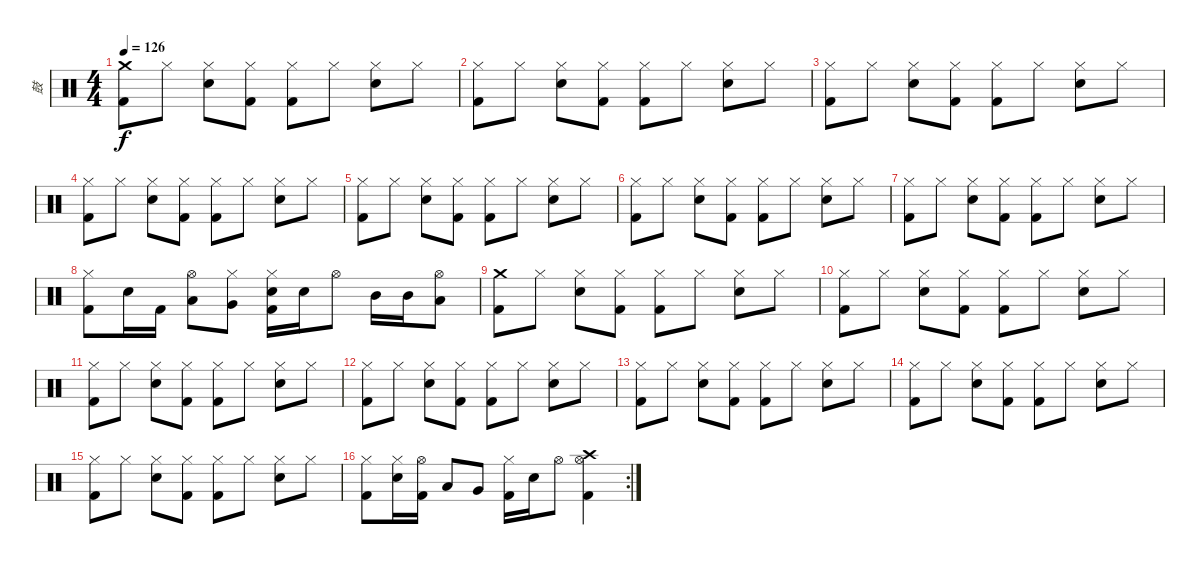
\track ("鼓" "鼓") {instrument percussion}
\staff {score}
\articulation defaults
\ts (4 4)
\tempo 126
\clef neutral
\ks c
("Crash medium (hit)" "Kick (hit) 2").8{dy f} "Hi-Hat (closed)".8 ("Hi-Hat (closed)" "Electric Snare (hit)").8 ("Hi-Hat (closed)" "Kick (hit) 2").8 ("Hi-Hat (closed)" "Kick (hit) 2").8 "Hi-Hat (closed)".8 ("Hi-Hat (closed)" "Electric Snare (hit)").8 "Hi-Hat (closed)".8 |
("Hi-Hat (closed)" "Kick (hit) 2").8 "Hi-Hat (closed)".8 ("Hi-Hat (closed)" "Electric Snare (hit)").8 ("Hi-Hat (closed)" "Kick (hit) 2").8 ("Hi-Hat (closed)" "Kick (hit) 2").8 "Hi-Hat (closed)".8 ("Hi-Hat (closed)" "Electric Snare (hit)").8 "Hi-Hat (closed)".8 |
("Hi-Hat (closed)" "Kick (hit) 2").8 "Hi-Hat (closed)".8 ("Hi-Hat (closed)" "Electric Snare (hit)").8 ("Hi-Hat (closed)" "Kick (hit) 2").8 ("Hi-Hat (closed)" "Kick (hit) 2").8 "Hi-Hat (closed)".8 ("Hi-Hat (closed)" "Electric Snare (hit)").8 "Hi-Hat (closed)".8 |
("Hi-Hat (closed)" "Kick (hit) 2").8 "Hi-Hat (closed)".8 ("Hi-Hat (closed)" "Electric Snare (hit)").8 ("Hi-Hat (closed)" "Kick (hit) 2").8 ("Hi-Hat (closed)" "Kick (hit) 2").8 "Hi-Hat (closed)".8 ("Hi-Hat (closed)" "Electric Snare (hit)").8 "Hi-Hat (closed)".8 |
("Hi-Hat (closed)" "Kick (hit) 2").8 "Hi-Hat (closed)".8 ("Hi-Hat (closed)" "Electric Snare (hit)").8 ("Hi-Hat (closed)" "Kick (hit) 2").8 ("Hi-Hat (closed)" "Kick (hit) 2").8 "Hi-Hat (closed)".8 ("Hi-Hat (closed)" "Electric Snare (hit)").8 "Hi-Hat (closed)".8 |
("Hi-Hat (closed)" "Kick (hit) 2").8 "Hi-Hat (closed)".8 ("Hi-Hat (closed)" "Electric Snare (hit)").8 ("Hi-Hat (closed)" "Kick (hit) 2").8 ("Hi-Hat (closed)" "Kick (hit) 2").8 "Hi-Hat (closed)".8 ("Hi-Hat (closed)" "Electric Snare (hit)").8 "Hi-Hat (closed)".8 |
("Hi-Hat (closed)" "Kick (hit) 2").8 "Hi-Hat (closed)".8 ("Hi-Hat (closed)" "Electric Snare (hit)").8 ("Hi-Hat (closed)" "Kick (hit) 2").8 ("Hi-Hat (closed)" "Kick (hit) 2").8 "Hi-Hat (closed)".8 ("Hi-Hat (closed)" "Electric Snare (hit)").8 "Hi-Hat (closed)".8 |
("Hi-Hat (closed)" "Kick (hit) 2").8 "Electric Snare (hit)".16 "Kick (hit) 2".16 ("Hi-Hat (open)" "Low Tom (hit)").8 ("Hi-Hat (closed)" "Very Low Tom (hit)").8 ("Hi-Hat (closed)" "Electric Snare (hit)" "Kick (hit) 2").16 "Electric Snare (hit)".16 "Hi-Hat (open)".8 "Mid Tom (hit)".16 "Mid Tom (hit)".16 ("Hi-Hat (open)" "Low Tom (hit)").8 |
("Crash medium (hit)" "Kick (hit) 2").8 "Hi-Hat (closed)".8 ("Hi-Hat (closed)" "Electric Snare (hit)").8 ("Hi-Hat (closed)" "Kick (hit) 2").8 ("Hi-Hat (closed)" "Kick (hit) 2").8 "Hi-Hat (closed)".8 ("Hi-Hat (closed)" "Electric Snare (hit)").8 "Hi-Hat (closed)".8 |
("Hi-Hat (closed)" "Kick (hit) 2").8 "Hi-Hat (closed)".8 ("Hi-Hat (closed)" "Electric Snare (hit)").8 ("Hi-Hat (closed)" "Kick (hit) 2").8 ("Hi-Hat (closed)" "Kick (hit) 2").8 "Hi-Hat (closed)".8 ("Hi-Hat (closed)" "Electric Snare (hit)").8 "Hi-Hat (closed)".8 |
("Hi-Hat (closed)" "Kick (hit) 2").8 "Hi-Hat (closed)".8 ("Hi-Hat (closed)" "Electric Snare (hit)").8 ("Hi-Hat (closed)" "Kick (hit) 2").8 ("Hi-Hat (closed)" "Kick (hit) 2").8 "Hi-Hat (closed)".8 ("Hi-Hat (closed)" "Electric Snare (hit)").8 "Hi-Hat (closed)".8 |
("Hi-Hat (closed)" "Kick (hit) 2").8 "Hi-Hat (closed)".8 ("Hi-Hat (closed)" "Electric Snare (hit)").8 ("Hi-Hat (closed)" "Kick (hit) 2").8 ("Hi-Hat (closed)" "Kick (hit) 2").8 "Hi-Hat (closed)".8 ("Hi-Hat (closed)" "Electric Snare (hit)").8 "Hi-Hat (closed)".8 |
("Hi-Hat (closed)" "Kick (hit) 2").8 "Hi-Hat (closed)".8 ("Hi-Hat (closed)" "Electric Snare (hit)").8 ("Hi-Hat (closed)" "Kick (hit) 2").8 ("Hi-Hat (closed)" "Kick (hit) 2").8 "Hi-Hat (closed)".8 ("Hi-Hat (closed)" "Electric Snare (hit)").8 "Hi-Hat (closed)".8 |
("Hi-Hat (closed)" "Kick (hit) 2").8 "Hi-Hat (closed)".8 ("Hi-Hat (closed)" "Electric Snare (hit)").8 ("Hi-Hat (closed)" "Kick (hit) 2").8 ("Hi-Hat (closed)" "Kick (hit) 2").8 "Hi-Hat (closed)".8 ("Hi-Hat (closed)" "Electric Snare (hit)").8 "Hi-Hat (closed)".8 |
("Hi-Hat (closed)" "Kick (hit) 2").8 "Hi-Hat (closed)".8 ("Hi-Hat (closed)" "Electric Snare (hit)").8 ("Hi-Hat (closed)" "Kick (hit) 2").8 ("Hi-Hat (closed)" "Kick (hit) 2").8 "Hi-Hat (closed)".8 ("Hi-Hat (closed)" "Electric Snare (hit)").8 "Hi-Hat (closed)".8 |
\rc 2
("Hi-Hat (closed)" "Kick (hit) 2").8 ("Hi-Hat (closed)" "Electric Snare (hit)").16 ("Hi-Hat (open)" "Kick (hit) 2").16 "Low Tom (hit)".8 "Very Low Tom (hit)".8 ("Hi-Hat (closed)" "Kick (hit) 2").16 "Electric Snare (hit)".16 "Hi-Hat (open)".8 ("Hi-Hat (open)" "Crash high (hit)" "Kick (hit) 2").4
